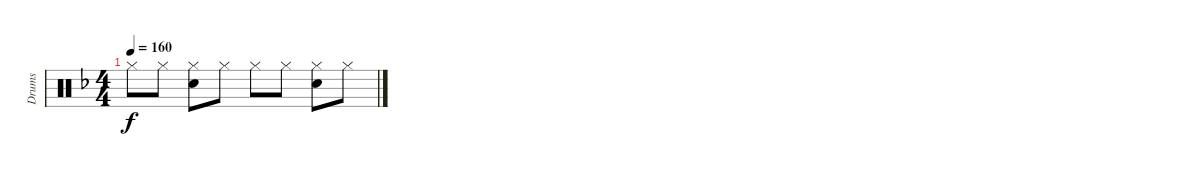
\track ("Drums" "Drums") {instrument percussion}
\staff {score}
\articulation defaults
\ts (4 4)
\tempo 160
\clef neutral
\ks f "Hi-Hat (closed)".8{dy f} "Hi-Hat (closed)".8
("Hi-Hat (closed)" "Snare (hit) 2").8 "Hi-Hat (closed)".8 "Hi-Hat (closed)".8 "Hi-Hat (closed)".8 ("Hi-Hat (closed)" "Snare (hit) 2").8 "Hi-Hat (closed)".8
